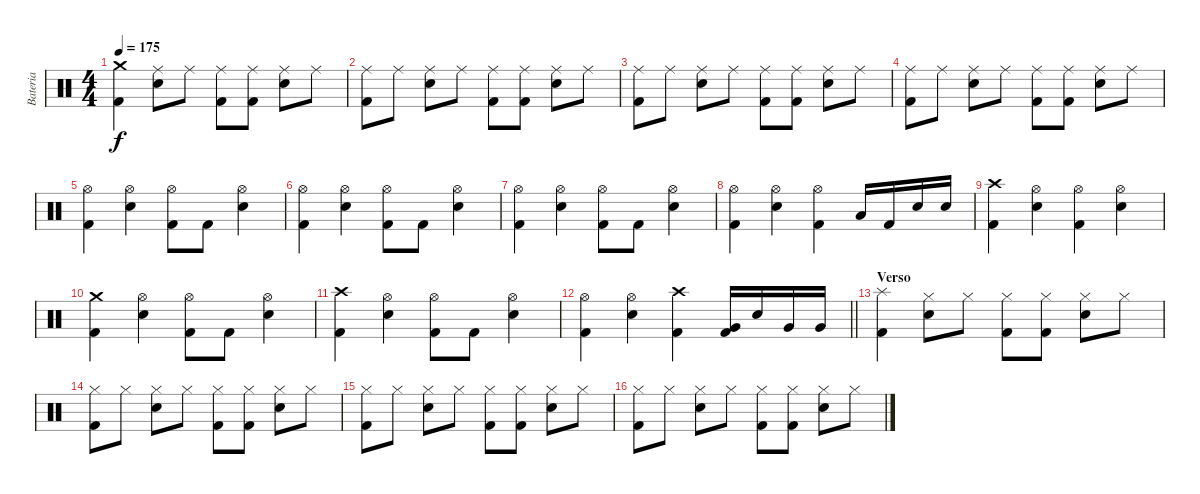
\track ("Bateria" "Bateria") {instrument percussion}
\staff {score}
\articulation defaults
\ts (4 4)
\tempo 175
\clef neutral
\ks c
("Crash medium (hit)" "Kick (hit) 2").4{dy f} ("Ride (middle)" "Electric Snare (hit)").8 "Ride (middle)".8 ("Ride (middle)" "Kick (hit) 2").8 ("Ride (middle)" "Kick (hit) 2").8 ("Ride (middle)" "Electric Snare (hit)").8 "Ride (middle)".8 |
("Ride (middle)" "Kick (hit) 2").8 "Ride (middle)".8 ("Ride (middle)" "Electric Snare (hit)").8 "Ride (middle)".8 ("Ride (middle)" "Kick (hit) 2").8 ("Ride (middle)" "Kick (hit) 2").8 ("Ride (middle)" "Electric Snare (hit)").8 "Ride (middle)".8 |
("Ride (middle)" "Kick (hit) 2").8 "Ride (middle)".8 ("Ride (middle)" "Electric Snare (hit)").8 "Ride (middle)".8 ("Ride (middle)" "Kick (hit) 2").8 ("Ride (middle)" "Kick (hit) 2").8 ("Ride (middle)" "Electric Snare (hit)").8 "Ride (middle)".8 |
("Ride (middle)" "Kick (hit) 2").8 "Ride (middle)".8 ("Ride (middle)" "Electric Snare (hit)").8 "Ride (middle)".8 ("Ride (middle)" "Kick (hit) 2").8 ("Ride (middle)" "Kick (hit) 2").8 ("Ride (middle)" "Electric Snare (hit)").8 "Ride (middle)".8 |
("Hi-Hat (open)" "Kick (hit) 2").4 ("Hi-Hat (open)" "Electric Snare (hit)").4 ("Hi-Hat (open)" "Kick (hit) 2").8 "Kick (hit) 2".8 ("Hi-Hat (open)" "Electric Snare (hit)").4 |
("Hi-Hat (open)" "Kick (hit) 2").4 ("Hi-Hat (open)" "Electric Snare (hit)").4 ("Hi-Hat (open)" "Kick (hit) 2").8 "Kick (hit) 2".8 ("Hi-Hat (open)" "Electric Snare (hit)").4 |
("Hi-Hat (open)" "Kick (hit) 2").4 ("Hi-Hat (open)" "Electric Snare (hit)").4 ("Hi-Hat (open)" "Kick (hit) 2").8 "Kick (hit) 2".8 ("Hi-Hat (open)" "Electric Snare (hit)").4 |
("Hi-Hat (open)" "Kick (hit) 2").4 ("Hi-Hat (open)" "Electric Snare (hit)").4 ("Hi-Hat (open)" "Kick (hit) 2").4 "Low Tom (hit)".16 "Kick (hit) 2".16 "Electric Snare (hit)".16 "Electric Snare (hit)".16 |
("Crash high (hit)" "Kick (hit) 2").4 ("Hi-Hat (open)" "Electric Snare (hit)").4 ("Hi-Hat (open)" "Kick (hit) 2").4 ("Hi-Hat (open)" "Electric Snare (hit)").4 |
("Crash medium (hit)" "Kick (hit) 2").4 ("Hi-Hat (open)" "Electric Snare (hit)").4 ("Hi-Hat (open)" "Kick (hit) 2").8 "Kick (hit) 2".8 ("Hi-Hat (open)" "Electric Snare (hit)").4 |
("Crash high (hit)" "Kick (hit) 2").4 ("Hi-Hat (open)" "Electric Snare (hit)").4 ("Hi-Hat (open)" "Kick (hit) 2").8 "Kick (hit) 2".8 ("Hi-Hat (open)" "Electric Snare (hit)").4 |
\barLineRight lightlight
("Hi-Hat (open)" "Kick (hit) 2").4 ("Hi-Hat (open)" "Electric Snare (hit)").4 ("Crash high (hit)" "Kick (hit) 2").4 ("Very Low Tom (hit)" "Kick (hit) 2").16 "Electric Snare (hit)".16 "Very Low Tom (hit)".16 "Very Low Tom (hit)".16 |
\section ("" "Verso")
("Splash (hit)" "Kick (hit) 2").4 ("Hi-Hat (closed)" "Electric Snare (hit)").8 "Hi-Hat (closed)".8 ("Hi-Hat (closed)" "Kick (hit) 2").8 ("Hi-Hat (closed)" "Kick (hit) 2").8 ("Hi-Hat (closed)" "Electric Snare (hit)").8 "Hi-Hat (closed)".8 |
("Hi-Hat (closed)" "Kick (hit) 2").8 "Hi-Hat (closed)".8 ("Hi-Hat (closed)" "Electric Snare (hit)").8 "Hi-Hat (closed)".8 ("Hi-Hat (closed)" "Kick (hit) 2").8 ("Hi-Hat (closed)" "Kick (hit) 2").8 ("Hi-Hat (closed)" "Electric Snare (hit)").8 "Hi-Hat (closed)".8 |
("Hi-Hat (closed)" "Kick (hit) 2").8 "Hi-Hat (closed)".8 ("Hi-Hat (closed)" "Electric Snare (hit)").8 "Hi-Hat (closed)".8 ("Hi-Hat (closed)" "Kick (hit) 2").8 ("Hi-Hat (closed)" "Kick (hit) 2").8 ("Hi-Hat (closed)" "Electric Snare (hit)").8 "Hi-Hat (closed)".8 |
("Hi-Hat (closed)" "Kick (hit) 2").8 "Hi-Hat (closed)".8 ("Hi-Hat (closed)" "Electric Snare (hit)").8 "Hi-Hat (closed)".8 ("Hi-Hat (closed)" "Kick (hit) 2").8 ("Hi-Hat (closed)" "Kick (hit) 2").8 ("Hi-Hat (closed)" "Electric Snare (hit)").8 "Hi-Hat (closed)".8
